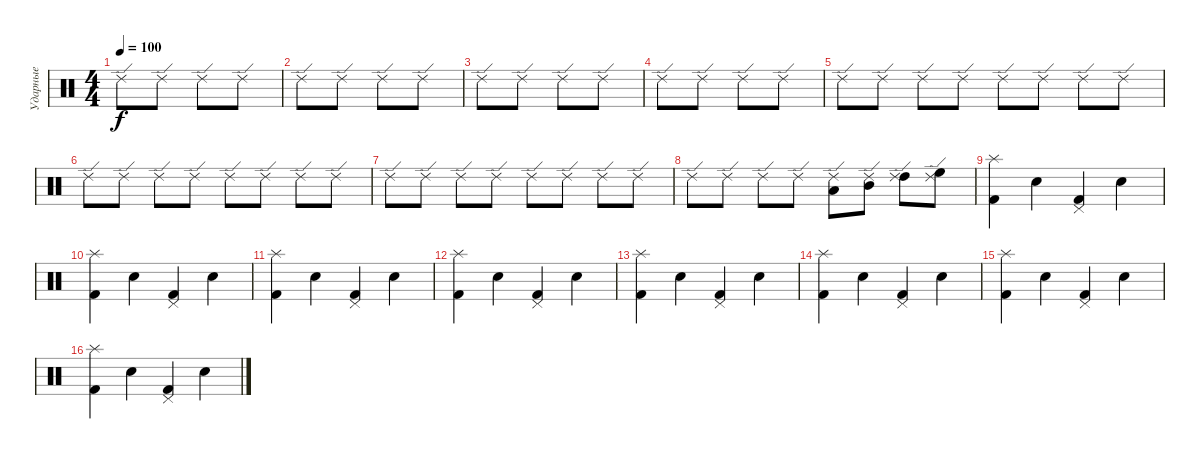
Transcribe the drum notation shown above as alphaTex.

\track ("Ударные" "Ударные") {instrument percussion}
\staff {score}
\articulation defaults
\ts (4 4)
\tempo 100
\clef neutral
\ks c "Ride (edge) 2".8{dy f} "Ride (edge) 2".8 "Ride (edge) 2".8 "Ride (edge) 2".8
|
"Ride (edge) 2".8 "Ride (edge) 2".8 "Ride (edge) 2".8 "Ride (edge) 2".8 |
"Ride (edge) 2".8 "Ride (edge) 2".8 "Ride (edge) 2".8 "Ride (edge) 2".8 |
"Ride (edge) 2".8 "Ride (edge) 2".8 "Ride (edge) 2".8 "Ride (edge) 2".8 |
"Ride (edge) 2".8 "Ride (edge) 2".8 "Ride (edge) 2".8 "Ride (edge) 2".8 "Ride (edge) 2".8 "Ride (edge) 2".8 "Ride (edge) 2".8 "Ride (edge) 2".8 |
"Ride (edge) 2".8 "Ride (edge) 2".8 "Ride (edge) 2".8 "Ride (edge) 2".8 "Ride (edge) 2".8 "Ride (edge) 2".8 "Ride (edge) 2".8 "Ride (edge) 2".8 |
"Ride (edge) 2".8 "Ride (edge) 2".8 "Ride (edge) 2".8 "Ride (edge) 2".8 "Ride (edge) 2".8 "Ride (edge) 2".8 "Ride (edge) 2".8 "Ride (edge) 2".8 |
"Ride (edge) 2".8 "Ride (edge) 2".8 "Ride (edge) 2".8 "Ride (edge) 2".8 ("Low Tom (hit)" "Ride (edge) 2").8 ("Mid Tom (hit)" "Ride (edge) 2").8 ("High Tom (hit)" "Ride (edge) 2").8 ("High Floor Tom (hit)" "Ride (edge) 2").8 |
("Splash (hit)" "Kick (hit) 2").4 "Snare (hit) 2".4 ("Pedal Hi-Hat (hit)" "Kick (hit) 2").4 "Snare (hit) 2".4 |
("Splash (hit)" "Kick (hit) 2").4 "Snare (hit) 2".4 ("Pedal Hi-Hat (hit)" "Kick (hit) 2").4 "Snare (hit) 2".4 |
("Splash (hit)" "Kick (hit) 2").4 "Snare (hit) 2".4 ("Pedal Hi-Hat (hit)" "Kick (hit) 2").4 "Snare (hit) 2".4 |
("Splash (hit)" "Kick (hit) 2").4 "Snare (hit) 2".4 ("Pedal Hi-Hat (hit)" "Kick (hit) 2").4 "Snare (hit) 2".4 |
("Splash (hit)" "Kick (hit) 2").4 "Snare (hit) 2".4 ("Pedal Hi-Hat (hit)" "Kick (hit) 2").4 "Snare (hit) 2".4 |
("Splash (hit)" "Kick (hit) 2").4 "Snare (hit) 2".4 ("Pedal Hi-Hat (hit)" "Kick (hit) 2").4 "Snare (hit) 2".4 |
("Splash (hit)" "Kick (hit) 2").4 "Snare (hit) 2".4 ("Pedal Hi-Hat (hit)" "Kick (hit) 2").4 "Snare (hit) 2".4 |
("Splash (hit)" "Kick (hit) 2").4 "Snare (hit) 2".4 ("Pedal Hi-Hat (hit)" "Kick (hit) 2").4 "Snare (hit) 2".4
